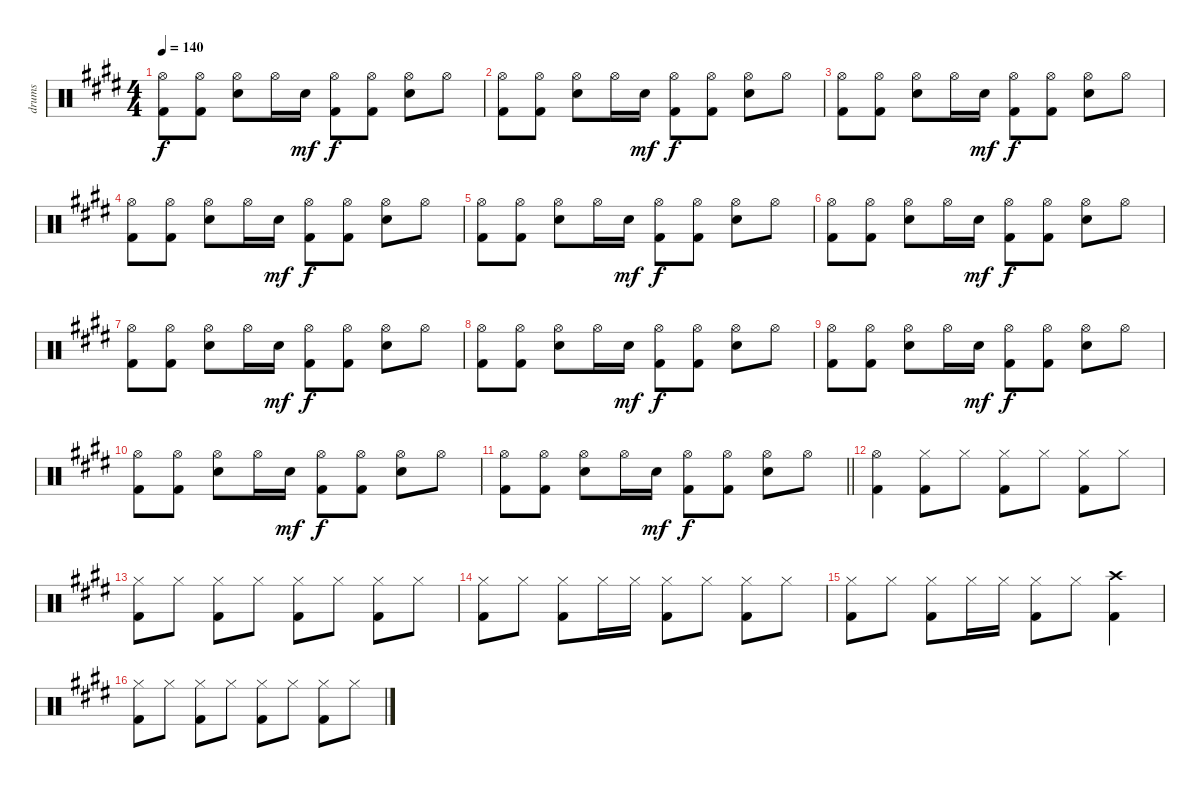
\track ("drums" "drums") {instrument percussion}
\staff {score}
\articulation defaults
\ts (4 4)
\tempo 140
\clef neutral
\ks e
("Hi-Hat (open)" "Kick (hit) 2").8{dy f} ("Hi-Hat (open)" "Kick (hit) 2").8 ("Hi-Hat (open)" "Snare (hit) 2").8 "Hi-Hat (open)".16 "Snare (hit) 2".16{dy mf} ("Hi-Hat (open)" "Kick (hit) 2").8{dy f} ("Hi-Hat (open)" "Kick (hit) 2").8 ("Hi-Hat (open)" "Snare (hit) 2").8 "Hi-Hat (open)".8 |
("Hi-Hat (open)" "Kick (hit) 2").8 ("Hi-Hat (open)" "Kick (hit) 2").8 ("Hi-Hat (open)" "Snare (hit) 2").8 "Hi-Hat (open)".16 "Snare (hit) 2".16{dy mf} ("Hi-Hat (open)" "Kick (hit) 2").8{dy f} ("Hi-Hat (open)" "Kick (hit) 2").8 ("Hi-Hat (open)" "Snare (hit) 2").8 "Hi-Hat (open)".8 |
("Hi-Hat (open)" "Kick (hit) 2").8 ("Hi-Hat (open)" "Kick (hit) 2").8 ("Hi-Hat (open)" "Snare (hit) 2").8 "Hi-Hat (open)".16 "Snare (hit) 2".16{dy mf} ("Hi-Hat (open)" "Kick (hit) 2").8{dy f} ("Hi-Hat (open)" "Kick (hit) 2").8 ("Hi-Hat (open)" "Snare (hit) 2").8 "Hi-Hat (open)".8 |
("Hi-Hat (open)" "Kick (hit) 2").8 ("Hi-Hat (open)" "Kick (hit) 2").8 ("Hi-Hat (open)" "Snare (hit) 2").8 "Hi-Hat (open)".16 "Snare (hit) 2".16{dy mf} ("Hi-Hat (open)" "Kick (hit) 2").8{dy f} ("Hi-Hat (open)" "Kick (hit) 2").8 ("Hi-Hat (open)" "Snare (hit) 2").8 "Hi-Hat (open)".8 |
("Hi-Hat (open)" "Kick (hit) 2").8 ("Hi-Hat (open)" "Kick (hit) 2").8 ("Hi-Hat (open)" "Snare (hit) 2").8 "Hi-Hat (open)".16 "Snare (hit) 2".16{dy mf} ("Hi-Hat (open)" "Kick (hit) 2").8{dy f} ("Hi-Hat (open)" "Kick (hit) 2").8 ("Hi-Hat (open)" "Snare (hit) 2").8 "Hi-Hat (open)".8 |
("Hi-Hat (open)" "Kick (hit) 2").8 ("Hi-Hat (open)" "Kick (hit) 2").8 ("Hi-Hat (open)" "Snare (hit) 2").8 "Hi-Hat (open)".16 "Snare (hit) 2".16{dy mf} ("Hi-Hat (open)" "Kick (hit) 2").8{dy f} ("Hi-Hat (open)" "Kick (hit) 2").8 ("Hi-Hat (open)" "Snare (hit) 2").8 "Hi-Hat (open)".8 |
("Hi-Hat (open)" "Kick (hit) 2").8 ("Hi-Hat (open)" "Kick (hit) 2").8 ("Hi-Hat (open)" "Snare (hit) 2").8 "Hi-Hat (open)".16 "Snare (hit) 2".16{dy mf} ("Hi-Hat (open)" "Kick (hit) 2").8{dy f} ("Hi-Hat (open)" "Kick (hit) 2").8 ("Hi-Hat (open)" "Snare (hit) 2").8 "Hi-Hat (open)".8 |
("Hi-Hat (open)" "Kick (hit) 2").8 ("Hi-Hat (open)" "Kick (hit) 2").8 ("Hi-Hat (open)" "Snare (hit) 2").8 "Hi-Hat (open)".16 "Snare (hit) 2".16{dy mf} ("Hi-Hat (open)" "Kick (hit) 2").8{dy f} ("Hi-Hat (open)" "Kick (hit) 2").8 ("Hi-Hat (open)" "Snare (hit) 2").8 "Hi-Hat (open)".8 |
("Hi-Hat (open)" "Kick (hit) 2").8 ("Hi-Hat (open)" "Kick (hit) 2").8 ("Hi-Hat (open)" "Snare (hit) 2").8 "Hi-Hat (open)".16 "Snare (hit) 2".16{dy mf} ("Hi-Hat (open)" "Kick (hit) 2").8{dy f} ("Hi-Hat (open)" "Kick (hit) 2").8 ("Hi-Hat (open)" "Snare (hit) 2").8 "Hi-Hat (open)".8 |
("Hi-Hat (open)" "Kick (hit) 2").8 ("Hi-Hat (open)" "Kick (hit) 2").8 ("Hi-Hat (open)" "Snare (hit) 2").8 "Hi-Hat (open)".16 "Snare (hit) 2".16{dy mf} ("Hi-Hat (open)" "Kick (hit) 2").8{dy f} ("Hi-Hat (open)" "Kick (hit) 2").8 ("Hi-Hat (open)" "Snare (hit) 2").8 "Hi-Hat (open)".8 |
\barLineRight lightlight
("Hi-Hat (open)" "Kick (hit) 2").8 ("Hi-Hat (open)" "Kick (hit) 2").8 ("Hi-Hat (open)" "Snare (hit) 2").8 "Hi-Hat (open)".16 "Snare (hit) 2".16{dy mf} ("Hi-Hat (open)" "Kick (hit) 2").8{dy f} ("Hi-Hat (open)" "Kick (hit) 2").8 ("Hi-Hat (open)" "Snare (hit) 2").8 "Hi-Hat (open)".8 |
("Hi-Hat (open)" "Kick (hit) 2").4 ("Hi-Hat (closed)" "Kick (hit) 2").8 "Hi-Hat (closed)".8 ("Hi-Hat (closed)" "Kick (hit) 2").8 "Hi-Hat (closed)".8 ("Hi-Hat (closed)" "Kick (hit) 2").8 "Hi-Hat (closed)".8 |
("Hi-Hat (closed)" "Kick (hit) 2").8 "Hi-Hat (closed)".8 ("Hi-Hat (closed)" "Kick (hit) 2").8 "Hi-Hat (closed)".8 ("Hi-Hat (closed)" "Kick (hit) 2").8 "Hi-Hat (closed)".8 ("Hi-Hat (closed)" "Kick (hit) 2").8 "Hi-Hat (closed)".8 |
("Hi-Hat (closed)" "Kick (hit) 2").8 "Hi-Hat (closed)".8 ("Hi-Hat (closed)" "Kick (hit) 2").8 "Hi-Hat (closed)".16 "Hi-Hat (closed)".16 ("Hi-Hat (closed)" "Kick (hit) 2").8 "Hi-Hat (closed)".8 ("Hi-Hat (closed)" "Kick (hit) 2").8 "Hi-Hat (closed)".8 |
("Hi-Hat (closed)" "Kick (hit) 2").8 "Hi-Hat (closed)".8 ("Hi-Hat (closed)" "Kick (hit) 2").8 "Hi-Hat (closed)".16 "Hi-Hat (closed)".16 ("Hi-Hat (closed)" "Kick (hit) 2").8 "Hi-Hat (closed)".8 ("Crash high (hit)" "Kick (hit) 2").4 |
("Hi-Hat (closed)" "Kick (hit) 2").8 "Hi-Hat (closed)".8 ("Hi-Hat (closed)" "Kick (hit) 2").8 "Hi-Hat (closed)".8 ("Hi-Hat (closed)" "Kick (hit) 2").8 "Hi-Hat (closed)".8 ("Hi-Hat (closed)" "Kick (hit) 2").8 "Hi-Hat (closed)".8
